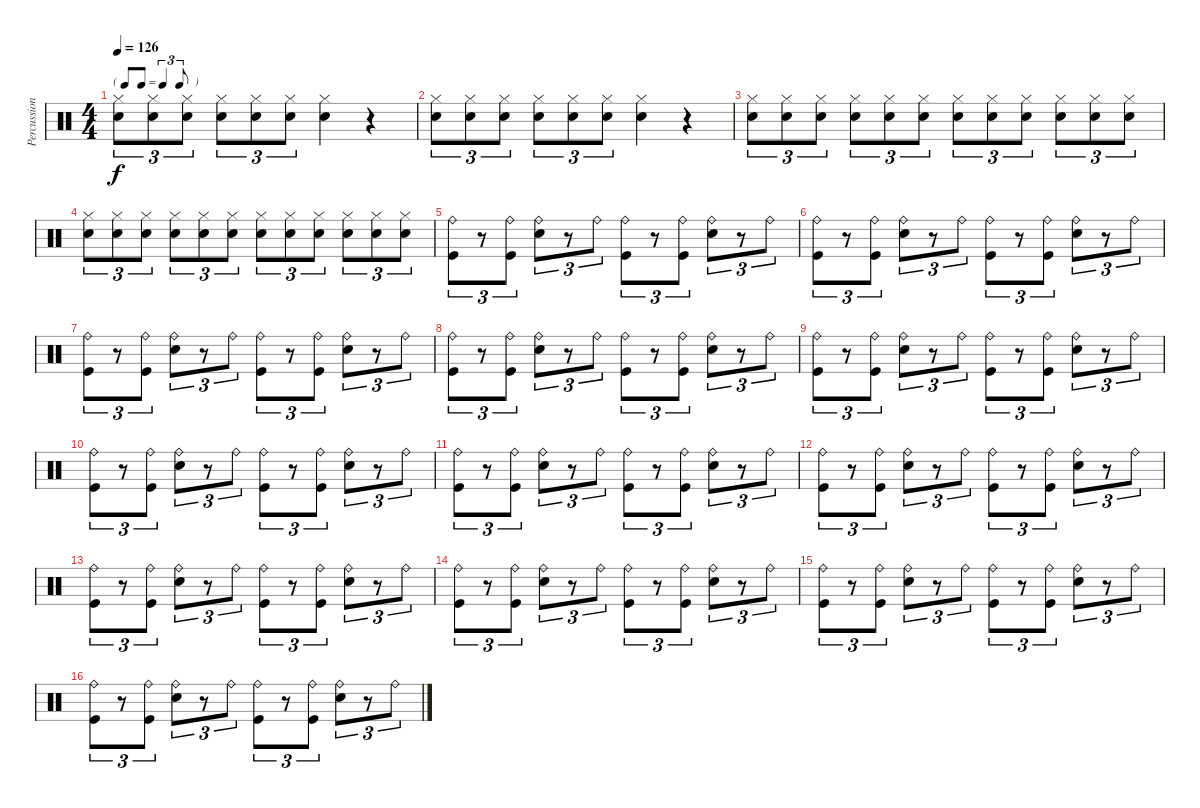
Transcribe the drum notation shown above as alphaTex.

\track ("Percussions" "Percussion") {instrument percussion}
\staff {score}
\articulation defaults
\ts (4 4)
\tf triplet8th
\tempo 126
\clef neutral
\ks c
("Hi-Hat (closed)" "Electric Snare (hit)").8{tu (3 2) dy f} ("Hi-Hat (closed)" "Electric Snare (hit)").8{tu (3 2)} ("Hi-Hat (closed)" "Electric Snare (hit)").8{tu (3 2)} ("Hi-Hat (closed)" "Electric Snare (hit)").8{tu (3 2)} ("Hi-Hat (closed)" "Electric Snare (hit)").8{tu (3 2)} ("Hi-Hat (closed)" "Electric Snare (hit)").8{tu (3 2)} ("Hi-Hat (closed)" "Electric Snare (hit)").4 r.4 |
("Hi-Hat (closed)" "Electric Snare (hit)").8{tu (3 2)} ("Hi-Hat (closed)" "Electric Snare (hit)").8{tu (3 2)} ("Hi-Hat (closed)" "Electric Snare (hit)").8{tu (3 2)} ("Hi-Hat (closed)" "Electric Snare (hit)").8{tu (3 2)} ("Hi-Hat (closed)" "Electric Snare (hit)").8{tu (3 2)} ("Hi-Hat (closed)" "Electric Snare (hit)").8{tu (3 2)} ("Hi-Hat (closed)" "Electric Snare (hit)").4 r.4 |
("Hi-Hat (closed)" "Electric Snare (hit)").8{tu (3 2)} ("Hi-Hat (closed)" "Electric Snare (hit)").8{tu (3 2)} ("Hi-Hat (closed)" "Electric Snare (hit)").8{tu (3 2)} ("Hi-Hat (closed)" "Electric Snare (hit)").8{tu (3 2)} ("Hi-Hat (closed)" "Electric Snare (hit)").8{tu (3 2)} ("Hi-Hat (closed)" "Electric Snare (hit)").8{tu (3 2)} ("Hi-Hat (closed)" "Electric Snare (hit)").8{tu (3 2)} ("Hi-Hat (closed)" "Electric Snare (hit)").8{tu (3 2)} ("Hi-Hat (closed)" "Electric Snare (hit)").8{tu (3 2)} ("Hi-Hat (closed)" "Electric Snare (hit)").8{tu (3 2)} ("Hi-Hat (closed)" "Electric Snare (hit)").8{tu (3 2)} ("Hi-Hat (closed)" "Electric Snare (hit)").8{tu (3 2)} |
("Hi-Hat (closed)" "Electric Snare (hit)").8{tu (3 2)} ("Hi-Hat (closed)" "Electric Snare (hit)").8{tu (3 2)} ("Hi-Hat (closed)" "Electric Snare (hit)").8{tu (3 2)} ("Hi-Hat (closed)" "Electric Snare (hit)").8{tu (3 2)} ("Hi-Hat (closed)" "Electric Snare (hit)").8{tu (3 2)} ("Hi-Hat (closed)" "Electric Snare (hit)").8{tu (3 2)} ("Hi-Hat (closed)" "Electric Snare (hit)").8{tu (3 2)} ("Hi-Hat (closed)" "Electric Snare (hit)").8{tu (3 2)} ("Hi-Hat (closed)" "Electric Snare (hit)").8{tu (3 2)} ("Hi-Hat (closed)" "Electric Snare (hit)").8{tu (3 2)} ("Hi-Hat (closed)" "Electric Snare (hit)").8{tu (3 2)} ("Hi-Hat (closed)" "Electric Snare (hit)").8{tu (3 2)} |
("Ride (bell)" "Kick (hit)").8{tu (3 2)} r.8{tu (3 2)} ("Ride (bell)" "Kick (hit)").8{tu (3 2)} ("Ride (bell)" "Electric Snare (hit)").8{tu (3 2)} r.8{tu (3 2)} "Ride (bell)".8{tu (3 2)} ("Ride (bell)" "Kick (hit)").8{tu (3 2)} r.8{tu (3 2)} ("Ride (bell)" "Kick (hit)").8{tu (3 2)} ("Ride (bell)" "Electric Snare (hit)").8{tu (3 2)} r.8{tu (3 2)} "Ride (bell)".8{tu (3 2)} |
("Ride (bell)" "Kick (hit)").8{tu (3 2)} r.8{tu (3 2)} ("Ride (bell)" "Kick (hit)").8{tu (3 2)} ("Ride (bell)" "Electric Snare (hit)").8{tu (3 2)} r.8{tu (3 2)} "Ride (bell)".8{tu (3 2)} ("Ride (bell)" "Kick (hit)").8{tu (3 2)} r.8{tu (3 2)} ("Ride (bell)" "Kick (hit)").8{tu (3 2)} ("Ride (bell)" "Electric Snare (hit)").8{tu (3 2)} r.8{tu (3 2)} "Ride (bell)".8{tu (3 2)} |
("Ride (bell)" "Kick (hit)").8{tu (3 2)} r.8{tu (3 2)} ("Ride (bell)" "Kick (hit)").8{tu (3 2)} ("Ride (bell)" "Electric Snare (hit)").8{tu (3 2)} r.8{tu (3 2)} "Ride (bell)".8{tu (3 2)} ("Ride (bell)" "Kick (hit)").8{tu (3 2)} r.8{tu (3 2)} ("Ride (bell)" "Kick (hit)").8{tu (3 2)} ("Ride (bell)" "Electric Snare (hit)").8{tu (3 2)} r.8{tu (3 2)} "Ride (bell)".8{tu (3 2)} |
("Ride (bell)" "Kick (hit)").8{tu (3 2)} r.8{tu (3 2)} ("Ride (bell)" "Kick (hit)").8{tu (3 2)} ("Ride (bell)" "Electric Snare (hit)").8{tu (3 2)} r.8{tu (3 2)} "Ride (bell)".8{tu (3 2)} ("Ride (bell)" "Kick (hit)").8{tu (3 2)} r.8{tu (3 2)} ("Ride (bell)" "Kick (hit)").8{tu (3 2)} ("Ride (bell)" "Electric Snare (hit)").8{tu (3 2)} r.8{tu (3 2)} "Ride (bell)".8{tu (3 2)} |
("Ride (bell)" "Kick (hit)").8{tu (3 2)} r.8{tu (3 2)} ("Ride (bell)" "Kick (hit)").8{tu (3 2)} ("Ride (bell)" "Electric Snare (hit)").8{tu (3 2)} r.8{tu (3 2)} "Ride (bell)".8{tu (3 2)} ("Ride (bell)" "Kick (hit)").8{tu (3 2)} r.8{tu (3 2)} ("Ride (bell)" "Kick (hit)").8{tu (3 2)} ("Ride (bell)" "Electric Snare (hit)").8{tu (3 2)} r.8{tu (3 2)} "Ride (bell)".8{tu (3 2)} |
("Ride (bell)" "Kick (hit)").8{tu (3 2)} r.8{tu (3 2)} ("Ride (bell)" "Kick (hit)").8{tu (3 2)} ("Ride (bell)" "Electric Snare (hit)").8{tu (3 2)} r.8{tu (3 2)} "Ride (bell)".8{tu (3 2)} ("Ride (bell)" "Kick (hit)").8{tu (3 2)} r.8{tu (3 2)} ("Ride (bell)" "Kick (hit)").8{tu (3 2)} ("Ride (bell)" "Electric Snare (hit)").8{tu (3 2)} r.8{tu (3 2)} "Ride (bell)".8{tu (3 2)} |
("Ride (bell)" "Kick (hit)").8{tu (3 2)} r.8{tu (3 2)} ("Ride (bell)" "Kick (hit)").8{tu (3 2)} ("Ride (bell)" "Electric Snare (hit)").8{tu (3 2)} r.8{tu (3 2)} "Ride (bell)".8{tu (3 2)} ("Ride (bell)" "Kick (hit)").8{tu (3 2)} r.8{tu (3 2)} ("Ride (bell)" "Kick (hit)").8{tu (3 2)} ("Ride (bell)" "Electric Snare (hit)").8{tu (3 2)} r.8{tu (3 2)} "Ride (bell)".8{tu (3 2)} |
("Ride (bell)" "Kick (hit)").8{tu (3 2)} r.8{tu (3 2)} ("Ride (bell)" "Kick (hit)").8{tu (3 2)} ("Ride (bell)" "Electric Snare (hit)").8{tu (3 2)} r.8{tu (3 2)} "Ride (bell)".8{tu (3 2)} ("Ride (bell)" "Kick (hit)").8{tu (3 2)} r.8{tu (3 2)} ("Ride (bell)" "Kick (hit)").8{tu (3 2)} ("Ride (bell)" "Electric Snare (hit)").8{tu (3 2)} r.8{tu (3 2)} "Ride (bell)".8{tu (3 2)} |
("Ride (bell)" "Kick (hit)").8{tu (3 2)} r.8{tu (3 2)} ("Ride (bell)" "Kick (hit)").8{tu (3 2)} ("Ride (bell)" "Electric Snare (hit)").8{tu (3 2)} r.8{tu (3 2)} "Ride (bell)".8{tu (3 2)} ("Ride (bell)" "Kick (hit)").8{tu (3 2)} r.8{tu (3 2)} ("Ride (bell)" "Kick (hit)").8{tu (3 2)} ("Ride (bell)" "Electric Snare (hit)").8{tu (3 2)} r.8{tu (3 2)} "Ride (bell)".8{tu (3 2)} |
("Ride (bell)" "Kick (hit)").8{tu (3 2)} r.8{tu (3 2)} ("Ride (bell)" "Kick (hit)").8{tu (3 2)} ("Ride (bell)" "Electric Snare (hit)").8{tu (3 2)} r.8{tu (3 2)} "Ride (bell)".8{tu (3 2)} ("Ride (bell)" "Kick (hit)").8{tu (3 2)} r.8{tu (3 2)} ("Ride (bell)" "Kick (hit)").8{tu (3 2)} ("Ride (bell)" "Electric Snare (hit)").8{tu (3 2)} r.8{tu (3 2)} "Ride (bell)".8{tu (3 2)} |
("Ride (bell)" "Kick (hit)").8{tu (3 2)} r.8{tu (3 2)} ("Ride (bell)" "Kick (hit)").8{tu (3 2)} ("Ride (bell)" "Electric Snare (hit)").8{tu (3 2)} r.8{tu (3 2)} "Ride (bell)".8{tu (3 2)} ("Ride (bell)" "Kick (hit)").8{tu (3 2)} r.8{tu (3 2)} ("Ride (bell)" "Kick (hit)").8{tu (3 2)} ("Ride (bell)" "Electric Snare (hit)").8{tu (3 2)} r.8{tu (3 2)} "Ride (bell)".8{tu (3 2)} |
("Ride (bell)" "Kick (hit)").8{tu (3 2)} r.8{tu (3 2)} ("Ride (bell)" "Kick (hit)").8{tu (3 2)} ("Ride (bell)" "Electric Snare (hit)").8{tu (3 2)} r.8{tu (3 2)} "Ride (bell)".8{tu (3 2)} ("Ride (bell)" "Kick (hit)").8{tu (3 2)} r.8{tu (3 2)} ("Ride (bell)" "Kick (hit)").8{tu (3 2)} ("Ride (bell)" "Electric Snare (hit)").8{tu (3 2)} r.8{tu (3 2)} "Ride (bell)".8{tu (3 2)}
